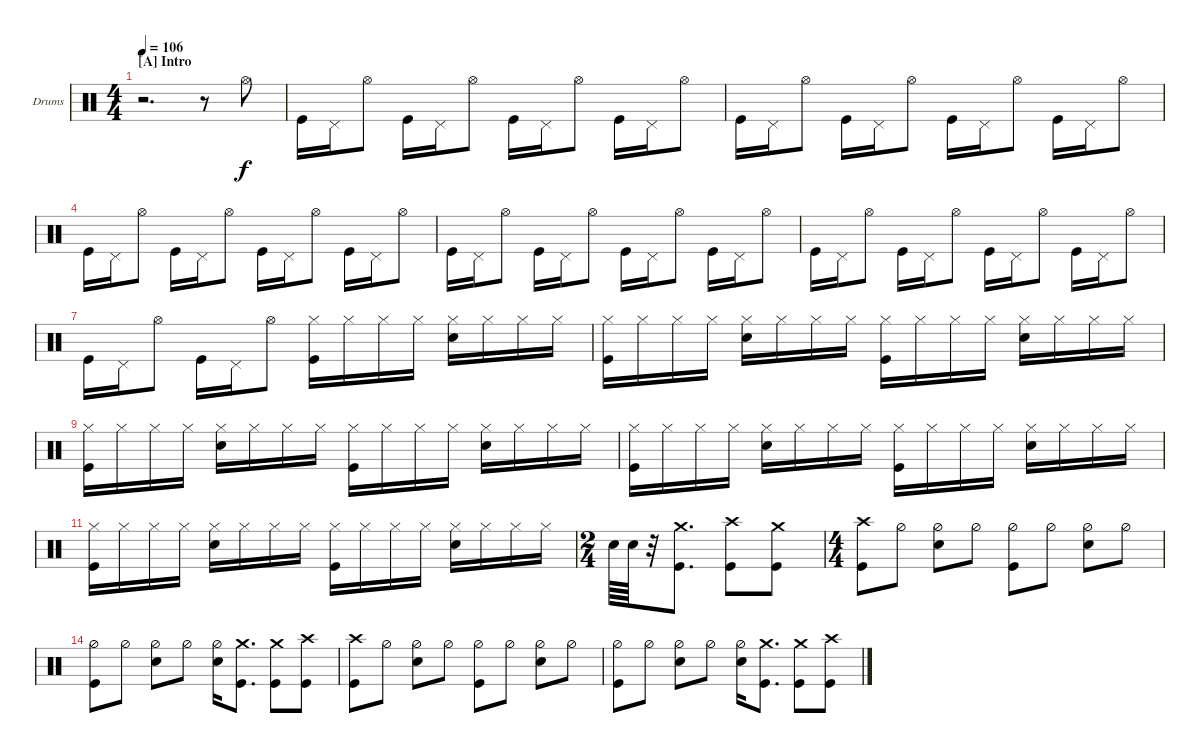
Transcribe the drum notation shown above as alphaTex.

\bracketExtendMode nobrackets
\firstSystemTrackNameOrientation horizontal
\otherSystemsTrackNameOrientation horizontal
\defaultBarNumberDisplay FirstOfSystem
\track ("Herman Rarebell" "Drums") {instrument percussion}
\staff {score}
\articulation defaults
\ts (4 4)
\section ("A" "Intro")
\tempo 106
\clef neutral
\scale
0.254435
\ks c
r.2{d dy f} r.8 "Hi-Hat (open)".8 |
\scale
0.36681 "Kick (hit)".16 "Pedal Hi-Hat (hit)".16 "Hi-Hat (open)".8 "Kick (hit)".16 "Pedal Hi-Hat (hit)".16 "Hi-Hat (open)".8 "Kick (hit)".16 "Pedal Hi-Hat (hit)".16 "Hi-Hat (open)".8 "Kick (hit)".16 "Pedal Hi-Hat (hit)".16 "Hi-Hat (open)".8 |
\scale
0.378783 "Kick (hit)".16 "Pedal Hi-Hat (hit)".16 "Hi-Hat (open)".8 "Kick (hit)".16 "Pedal Hi-Hat (hit)".16 "Hi-Hat (open)".8 "Kick (hit)".16 "Pedal Hi-Hat (hit)".16 "Hi-Hat (open)".8 "Kick (hit)".16 "Pedal Hi-Hat (hit)".16 "Hi-Hat (open)".8 |
\scale
0.503092 "Kick (hit)".16 "Pedal Hi-Hat (hit)".16 "Hi-Hat (open)".8 "Kick (hit)".16 "Pedal Hi-Hat (hit)".16 "Hi-Hat (open)".8 "Kick (hit)".16 "Pedal Hi-Hat (hit)".16 "Hi-Hat (open)".8 "Kick (hit)".16 "Pedal Hi-Hat (hit)".16 "Hi-Hat (open)".8 |
\scale
0.497083 "Kick (hit)".16 "Pedal Hi-Hat (hit)".16 "Hi-Hat (open)".8 "Kick (hit)".16 "Pedal Hi-Hat (hit)".16 "Hi-Hat (open)".8 "Kick (hit)".16 "Pedal Hi-Hat (hit)".16 "Hi-Hat (open)".8 "Kick (hit)".16 "Pedal Hi-Hat (hit)".16 "Hi-Hat (open)".8 |
\scale
0.499099 "Kick (hit)".16 "Pedal Hi-Hat (hit)".16 "Hi-Hat (open)".8 "Kick (hit)".16 "Pedal Hi-Hat (hit)".16 "Hi-Hat (open)".8 "Kick (hit)".16 "Pedal Hi-Hat (hit)".16 "Hi-Hat (open)".8 "Kick (hit)".16 "Pedal Hi-Hat (hit)".16 "Hi-Hat (open)".8 |
\scale
0.499517 "Kick (hit)".16 "Pedal Hi-Hat (hit)".16 "Hi-Hat (open)".8 "Kick (hit)".16 "Pedal Hi-Hat (hit)".16 "Hi-Hat (open)".8 ("Kick (hit)" "Hi-Hat (closed)").16 "Hi-Hat (closed)".16 "Hi-Hat (closed)".16 "Hi-Hat (closed)".16 ("Snare (hit) 2" "Hi-Hat (closed)").16 "Hi-Hat (closed)".16 "Hi-Hat (closed)".16 "Hi-Hat (closed)".16 |
\scale
0.507128 ("Kick (hit)" "Hi-Hat (closed)").16 "Hi-Hat (closed)".16 "Hi-Hat (closed)".16 "Hi-Hat (closed)".16 ("Snare (hit) 2" "Hi-Hat (closed)").16 "Hi-Hat (closed)".16 "Hi-Hat (closed)".16 "Hi-Hat (closed)".16 ("Kick (hit)" "Hi-Hat (closed)").16 "Hi-Hat (closed)".16 "Hi-Hat (closed)".16 "Hi-Hat (closed)".16 ("Snare (hit) 2" "Hi-Hat (closed)").16 "Hi-Hat (closed)".16 "Hi-Hat (closed)".16 "Hi-Hat (closed)".16 |
\scale
0.492378 ("Kick (hit)" "Hi-Hat (closed)").16 "Hi-Hat (closed)".16 "Hi-Hat (closed)".16 "Hi-Hat (closed)".16 ("Snare (hit) 2" "Hi-Hat (closed)").16 "Hi-Hat (closed)".16 "Hi-Hat (closed)".16 "Hi-Hat (closed)".16 ("Kick (hit)" "Hi-Hat (closed)").16 "Hi-Hat (closed)".16 "Hi-Hat (closed)".16 "Hi-Hat (closed)".16 ("Snare (hit) 2" "Hi-Hat (closed)").16 "Hi-Hat (closed)".16 "Hi-Hat (closed)".16 "Hi-Hat (closed)".16 |
\scale
0.496367 ("Kick (hit)" "Hi-Hat (closed)").16 "Hi-Hat (closed)".16 "Hi-Hat (closed)".16 "Hi-Hat (closed)".16 ("Snare (hit) 2" "Hi-Hat (closed)").16 "Hi-Hat (closed)".16 "Hi-Hat (closed)".16 "Hi-Hat (closed)".16 ("Kick (hit)" "Hi-Hat (closed)").16 "Hi-Hat (closed)".16 "Hi-Hat (closed)".16 "Hi-Hat (closed)".16 ("Snare (hit) 2" "Hi-Hat (closed)").16 "Hi-Hat (closed)".16 "Hi-Hat (closed)".16 "Hi-Hat (closed)".16 |
\scale
0.502221 ("Kick (hit)" "Hi-Hat (closed)").16 "Hi-Hat (closed)".16 "Hi-Hat (closed)".16 "Hi-Hat (closed)".16 ("Snare (hit) 2" "Hi-Hat (closed)").16 "Hi-Hat (closed)".16 "Hi-Hat (closed)".16 "Hi-Hat (closed)".16 ("Kick (hit)" "Hi-Hat (closed)").16 "Hi-Hat (closed)".16 "Hi-Hat (closed)".16 "Hi-Hat (closed)".16 ("Snare (hit) 2" "Hi-Hat (closed)").16 "Hi-Hat (closed)".16 "Hi-Hat (closed)".16 "Hi-Hat (closed)".16 |
\ts (2 4)
"Snare (hit) 2".64 "Snare (hit) 2".64 r.32 ("Kick (hit)" "Crash medium (hit)").8{d} ("Kick (hit)" "Crash high (hit)").8 ("Crash medium (hit)" "Kick (hit)").8 |
\ts (4 4)
("Kick (hit)" "Crash high (hit)").8 "Hi-Hat (half)".8 ("Snare (hit) 2" "Hi-Hat (half)").8 "Hi-Hat (half)".8 ("Kick (hit)" "Hi-Hat (half)").8 "Hi-Hat (half)".8 ("Snare (hit) 2" "Hi-Hat (half)").8 "Hi-Hat (half)".8 |
\scale
0.492219 ("Kick (hit)" "Hi-Hat (half)").8 "Hi-Hat (half)".8 ("Snare (hit) 2" "Hi-Hat (half)").8 "Hi-Hat (half)".8 ("Snare (hit) 2" "Hi-Hat (half)").16 ("Kick (hit)" "Crash medium (hit)").8{d} ("Kick (hit)" "Crash medium (hit)").8 ("Kick (hit)" "Crash high (hit)").8 |
\scale
0.506349 ("Kick (hit)" "Crash high (hit)").8 "Hi-Hat (half)".8 ("Snare (hit) 2" "Hi-Hat (half)").8 "Hi-Hat (half)".8 ("Kick (hit)" "Hi-Hat (half)").8 "Hi-Hat (half)".8 ("Snare (hit) 2" "Hi-Hat (half)").8 "Hi-Hat (half)".8 |
\scale
0.494554 ("Kick (hit)" "Hi-Hat (half)").8 "Hi-Hat (half)".8 ("Snare (hit) 2" "Hi-Hat (half)").8 "Hi-Hat (half)".8 ("Snare (hit) 2" "Hi-Hat (half)").16 ("Kick (hit)" "Crash medium (hit)").8{d} ("Kick (hit)" "Crash medium (hit)").8 ("Kick (hit)" "Crash high (hit)").8
